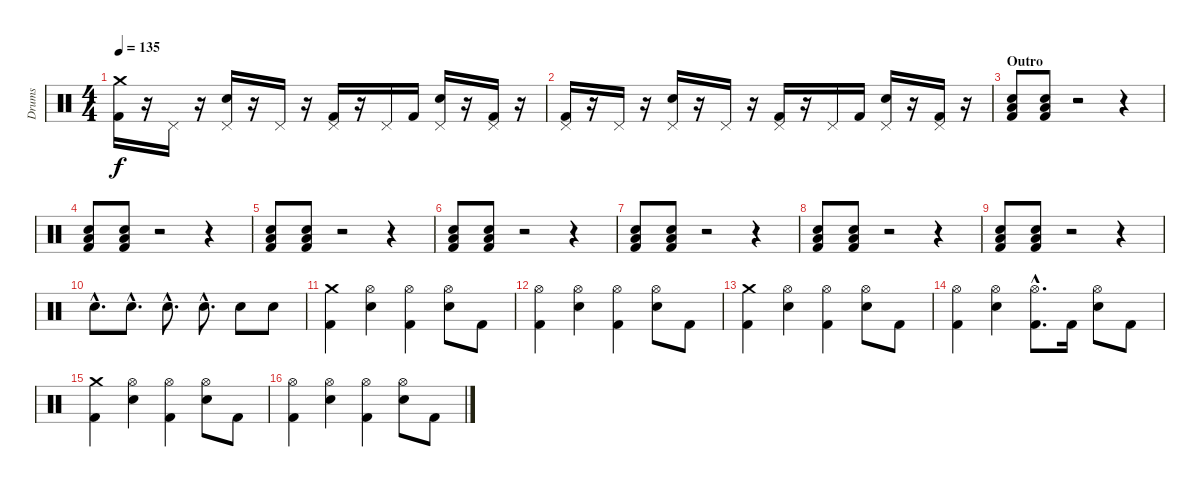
\track ("Drums" "Drums") {instrument percussion}
\staff {score}
\articulation defaults
\ts (4 4)
\tempo 135
\clef neutral
\ks c
("Crash medium (hit)" "Kick (hit) 2").16{dy f} r.16 "Pedal Hi-Hat (hit)".16 r.16 ("Pedal Hi-Hat (hit)" "Electric Snare (hit)").16 r.16 "Pedal Hi-Hat (hit)".16 r.16 ("Pedal Hi-Hat (hit)" "Kick (hit) 2").16 r.16 "Pedal Hi-Hat (hit)".16 "Kick (hit) 2".16 ("Pedal Hi-Hat (hit)" "Electric Snare (hit)").16 r.16 ("Pedal Hi-Hat (hit)" "Kick (hit) 2").16 r.16 |
("Pedal Hi-Hat (hit)" "Kick (hit) 2").16 r.16 "Pedal Hi-Hat (hit)".16 r.16 ("Pedal Hi-Hat (hit)" "Electric Snare (hit)").16 r.16 "Pedal Hi-Hat (hit)".16 r.16 ("Pedal Hi-Hat (hit)" "Kick (hit) 2").16 r.16 "Pedal Hi-Hat (hit)".16 "Kick (hit) 2".16 ("Pedal Hi-Hat (hit)" "Electric Snare (hit)").16 r.16 ("Pedal Hi-Hat (hit)" "Kick (hit) 2").16 r.16 |
\section ("" "Outro")
("Electric Snare (hit)" "Low Floor Tom (hit)" "Kick (hit) 2").8 ("Electric Snare (hit)" "Low Floor Tom (hit)" "Kick (hit) 2").8 r.2 r.4 |
("Electric Snare (hit)" "Low Floor Tom (hit)" "Kick (hit) 2").8 ("Electric Snare (hit)" "Low Floor Tom (hit)" "Kick (hit) 2").8 r.2 r.4 |
("Electric Snare (hit)" "Low Floor Tom (hit)" "Kick (hit) 2").8 ("Electric Snare (hit)" "Low Floor Tom (hit)" "Kick (hit) 2").8 r.2 r.4 |
("Electric Snare (hit)" "Low Floor Tom (hit)" "Kick (hit) 2").8 ("Electric Snare (hit)" "Low Floor Tom (hit)" "Kick (hit) 2").8 r.2 r.4 |
("Electric Snare (hit)" "Low Floor Tom (hit)" "Kick (hit) 2").8 ("Electric Snare (hit)" "Low Floor Tom (hit)" "Kick (hit) 2").8 r.2 r.4 |
("Electric Snare (hit)" "Low Floor Tom (hit)" "Kick (hit) 2").8 ("Electric Snare (hit)" "Low Floor Tom (hit)" "Kick (hit) 2").8 r.2 r.4 |
("Electric Snare (hit)" "Low Floor Tom (hit)" "Kick (hit) 2").8 ("Electric Snare (hit)" "Low Floor Tom (hit)" "Kick (hit) 2").8 r.2 r.4 |
"Electric Snare (hit)"{hac}.8{d} "Electric Snare (hit)"{hac}.8{d} "Electric Snare (hit)"{hac}.8{d} "Electric Snare (hit)"{hac}.8{d} "Electric Snare (hit)".8 "Electric Snare (hit)".8 |
("Crash medium (hit)" "Kick (hit) 2").4 ("Hi-Hat (open)" "Electric Snare (hit)").4 ("Hi-Hat (open)" "Kick (hit) 2").4 ("Hi-Hat (open)" "Electric Snare (hit)").8 "Kick (hit) 2".8 |
("Hi-Hat (open)" "Kick (hit) 2").4 ("Hi-Hat (open)" "Electric Snare (hit)").4 ("Hi-Hat (open)" "Kick (hit) 2").4 ("Hi-Hat (open)" "Electric Snare (hit)").8 "Kick (hit) 2".8 |
("Crash medium (hit)" "Kick (hit) 2").4 ("Hi-Hat (open)" "Electric Snare (hit)").4 ("Hi-Hat (open)" "Kick (hit) 2").4 ("Hi-Hat (open)" "Electric Snare (hit)").8 "Kick (hit) 2".8 |
("Hi-Hat (open)" "Kick (hit) 2").4 ("Hi-Hat (open)" "Electric Snare (hit)").4 ("Hi-Hat (open)"{hac} "Kick (hit) 2"{hac}).8{d} "Kick (hit) 2".16 ("Hi-Hat (open)" "Electric Snare (hit)").8 "Kick (hit) 2".8 |
("Crash medium (hit)" "Kick (hit) 2").4 ("Hi-Hat (open)" "Electric Snare (hit)").4 ("Hi-Hat (open)" "Kick (hit) 2").4 ("Hi-Hat (open)" "Electric Snare (hit)").8 "Kick (hit) 2".8 |
("Hi-Hat (open)" "Kick (hit) 2").4 ("Hi-Hat (open)" "Electric Snare (hit)").4 ("Hi-Hat (open)" "Kick (hit) 2").4 ("Hi-Hat (open)" "Electric Snare (hit)").8 "Kick (hit) 2".8
